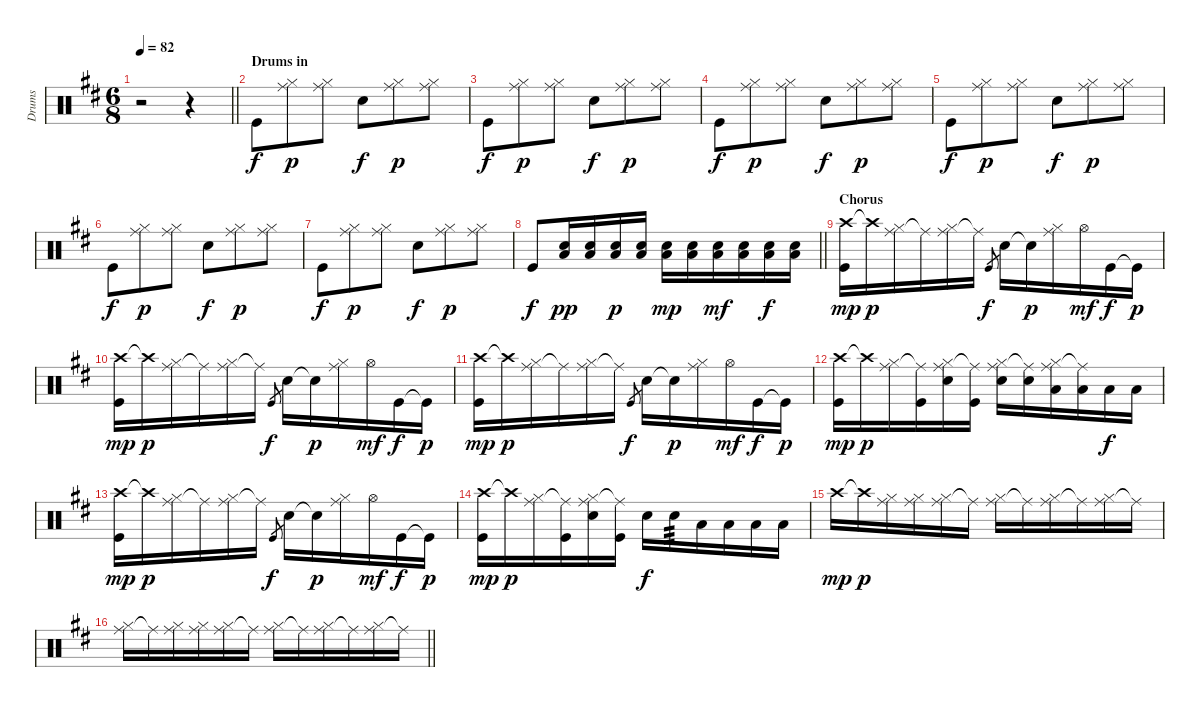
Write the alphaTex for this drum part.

\track ("Drums" "Drums") {instrument percussion}
\staff {score}
\articulation defaults
\ts (6 8)
\tempo 82
\clef neutral
\barLineRight lightlight
\ks d
r.2{dy f} r.4 |
\section ("" "Drums in")
"Kick (hit)".8 ("Hi-Hat (closed)" "Ride (middle)").8{dy p} ("Hi-Hat (closed)" "Ride (middle)").8 "Electric Snare (hit)".8{dy f} ("Hi-Hat (closed)" "Ride (middle)").8{dy p} ("Hi-Hat (closed)" "Ride (middle)").8 |
"Kick (hit)".8{dy f} ("Hi-Hat (closed)" "Ride (middle)").8{dy p} ("Hi-Hat (closed)" "Ride (middle)").8 "Electric Snare (hit)".8{dy f} ("Hi-Hat (closed)" "Ride (middle)").8{dy p} ("Hi-Hat (closed)" "Ride (middle)").8 |
"Kick (hit)".8{dy f} ("Hi-Hat (closed)" "Ride (middle)").8{dy p} ("Hi-Hat (closed)" "Ride (middle)").8 "Electric Snare (hit)".8{dy f} ("Hi-Hat (closed)" "Ride (middle)").8{dy p} ("Hi-Hat (closed)" "Ride (middle)").8 |
"Kick (hit)".8{dy f} ("Hi-Hat (closed)" "Ride (middle)").8{dy p} ("Hi-Hat (closed)" "Ride (middle)").8 "Electric Snare (hit)".8{dy f} ("Hi-Hat (closed)" "Ride (middle)").8{dy p} ("Hi-Hat (closed)" "Ride (middle)").8 |
"Kick (hit)".8{dy f} ("Hi-Hat (closed)" "Ride (middle)").8{dy p} ("Hi-Hat (closed)" "Ride (middle)").8 "Electric Snare (hit)".8{dy f} ("Hi-Hat (closed)" "Ride (middle)").8{dy p} ("Hi-Hat (closed)" "Ride (middle)").8 |
"Kick (hit)".8{dy f} ("Hi-Hat (closed)" "Ride (middle)").8{dy p} ("Hi-Hat (closed)" "Ride (middle)").8 "Electric Snare (hit)".8{dy f} ("Hi-Hat (closed)" "Ride (middle)").8{dy p} ("Hi-Hat (closed)" "Ride (middle)").8 |
\barLineRight lightlight "Kick (hit)".8{dy f}
("Electric Snare (hit)" "Low Floor Tom (hit)").16{dy pp} ("Electric Snare (hit)" "Low Floor Tom (hit)").16 ("Electric Snare (hit)" "Low Floor Tom (hit)").16{dy p} ("Electric Snare (hit)" "Low Floor Tom (hit)").16 ("Electric Snare (hit)" "Low Floor Tom (hit)").16{dy mp} ("Electric Snare (hit)" "Low Floor Tom (hit)").16 ("Electric Snare (hit)" "Low Floor Tom (hit)").16{dy mf} ("Electric Snare (hit)" "Low Floor Tom (hit)").16 ("Electric Snare (hit)" "Low Floor Tom (hit)").16{dy f} ("Electric Snare (hit)" "Low Floor Tom (hit)").16 |
\section ("" "Chorus")
("Crash high (hit)" "Kick (hit)").16{dy mp} "Crash high (hit)"{t}.16{dy p} ("Ride (middle)" "Hi-Hat (closed)").16 "Ride (middle)"{t}.16 ("Ride (middle)" "Hi-Hat (closed)").16 "Ride (middle)"{t}.16 "Kick (hit)".8{gr dy f} "Electric Snare (hit)".16 "Electric Snare (hit)"{t}.16{dy p} ("Ride (middle)" "Hi-Hat (closed)").16 "Hi-Hat (open)".16{dy mf} "Kick (hit)".16{dy f} "Kick (hit)"{t}.16{dy p} |
("Crash high (hit)" "Kick (hit)").16{dy mp} "Crash high (hit)"{t}.16{dy p} ("Ride (middle)" "Hi-Hat (closed)").16 "Ride (middle)"{t}.16 ("Ride (middle)" "Hi-Hat (closed)").16 "Ride (middle)"{t}.16 "Kick (hit)".8{gr dy f} "Electric Snare (hit)".16 "Electric Snare (hit)"{t}.16{dy p} ("Ride (middle)" "Hi-Hat (closed)").16 "Hi-Hat (open)".16{dy mf} "Kick (hit)".16{dy f} "Kick (hit)"{t}.16{dy p} |
("Crash high (hit)" "Kick (hit)").16{dy mp} "Crash high (hit)"{t}.16{dy p} ("Ride (middle)" "Hi-Hat (closed)").16 "Ride (middle)"{t}.16 ("Ride (middle)" "Hi-Hat (closed)").16 "Ride (middle)"{t}.16 "Kick (hit)".8{gr dy f} "Electric Snare (hit)".16 "Electric Snare (hit)"{t}.16{dy p} ("Ride (middle)" "Hi-Hat (closed)").16 "Hi-Hat (open)".16{dy mf} "Kick (hit)".16{dy f} "Kick (hit)"{t}.16{dy p} |
("Crash high (hit)" "Kick (hit)").16{dy mp} "Crash high (hit)"{t}.16{dy p} ("Ride (middle)" "Hi-Hat (closed)").16 ("Ride (middle)"{t} "Kick (hit)").16 ("Ride (middle)" "Hi-Hat (closed)" "Electric Snare (hit)").16 ("Ride (middle)"{t} "Kick (hit)").16 ("Ride (middle)" "Hi-Hat (closed)" "Electric Snare (hit)").16 ("Ride (middle)"{t} "Electric Snare (hit)").16 ("Ride (middle)" "Hi-Hat (closed)" "Low Floor Tom (hit)").16 ("Ride (middle)"{t} "Low Floor Tom (hit)").16 "Low Floor Tom (hit)".16{dy f} "Low Floor Tom (hit)".16 |
("Crash high (hit)" "Kick (hit)").16{dy mp} "Crash high (hit)"{t}.16{dy p} ("Ride (middle)" "Hi-Hat (closed)").16 "Ride (middle)"{t}.16 ("Ride (middle)" "Hi-Hat (closed)").16 "Ride (middle)"{t}.16 "Kick (hit)".8{gr dy f} "Electric Snare (hit)".16 "Electric Snare (hit)"{t}.16{dy p} ("Ride (middle)" "Hi-Hat (closed)").16 "Hi-Hat (open)".16{dy mf} "Kick (hit)".16{dy f} "Kick (hit)"{t}.16{dy p} |
("Crash high (hit)" "Kick (hit)").16{dy mp} "Crash high (hit)"{t}.16{dy p} ("Ride (middle)" "Hi-Hat (closed)").16 ("Ride (middle)"{t} "Kick (hit)").16 ("Ride (middle)" "Hi-Hat (closed)" "Electric Snare (hit)").16 ("Ride (middle)"{t} "Kick (hit)").16 "Electric Snare (hit)".16{dy f} "Electric Snare (hit)".16{tp 3} "Low Floor Tom (hit)".16 "Low Floor Tom (hit)".16 "Low Floor Tom (hit)".16 "Low Floor Tom (hit)".16 |
"Crash high (hit)".16{dy mp} "Crash high (hit)"{t}.16{dy p} ("Ride (middle)" "Hi-Hat (closed)").16 ("Ride (middle)" "Hi-Hat (closed)").16 ("Ride (middle)" "Hi-Hat (closed)").16 "Ride (middle)"{t}.16 ("Ride (middle)" "Hi-Hat (closed)").16 "Ride (middle)"{t}.16 ("Ride (middle)" "Hi-Hat (closed)").16 "Ride (middle)"{t}.16 ("Ride (middle)" "Hi-Hat (closed)").16 "Ride (middle)"{t}.16 |
\barLineRight lightlight
("Ride (middle)" "Hi-Hat (closed)").16 "Ride (middle)"{t}.16 ("Ride (middle)" "Hi-Hat (closed)").16 ("Ride (middle)" "Hi-Hat (closed)").16 ("Ride (middle)" "Hi-Hat (closed)").16 "Ride (middle)"{t}.16 ("Ride (middle)" "Hi-Hat (closed)").16 "Ride (middle)"{t}.16 ("Ride (middle)" "Hi-Hat (closed)").16 "Ride (middle)"{t}.16 ("Ride (middle)" "Hi-Hat (closed)").16 "Ride (middle)"{t}.16
